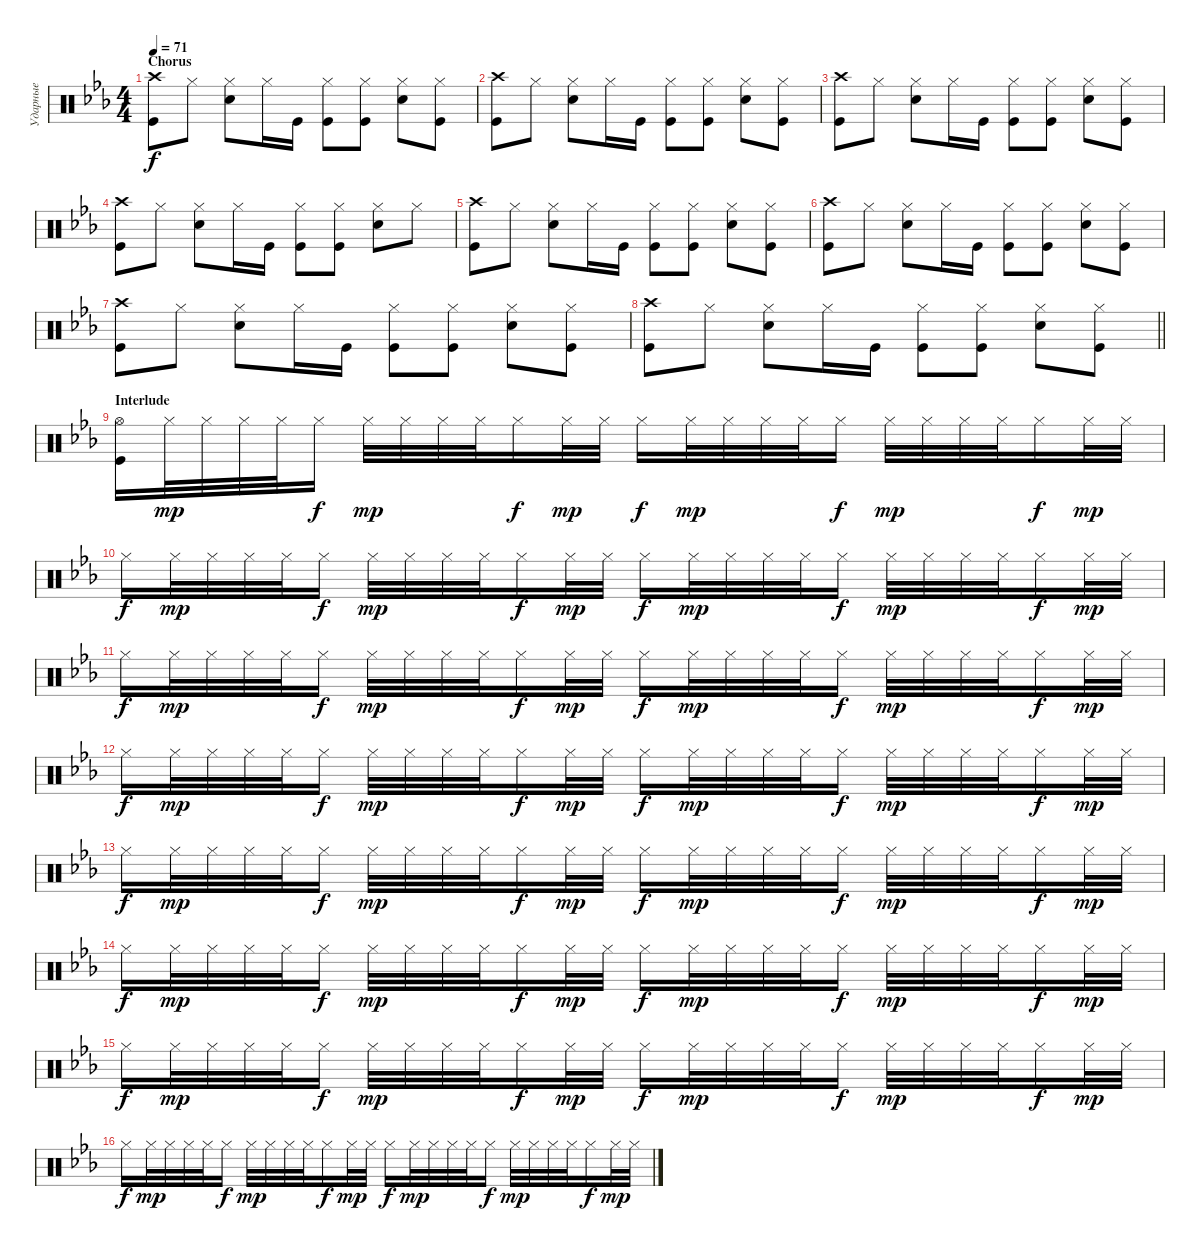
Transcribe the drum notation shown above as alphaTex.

\track ("Ударные" "Ударные") {instrument percussion}
\staff {score}
\articulation defaults
\ts (4 4)
\section ("" "Chorus")
\tempo 71
\clef neutral
\ks cminor
("Kick (hit)" "Crash high (hit)").8{dy f} "Hi-Hat (closed)".8 ("Snare (hit) 2" "Hi-Hat (closed)").8 "Hi-Hat (closed)".16 "Kick (hit)".16 ("Hi-Hat (closed)" "Kick (hit)").8 ("Hi-Hat (closed)" "Kick (hit)").8 ("Hi-Hat (closed)" "Snare (hit) 2").8 ("Hi-Hat (closed)" "Kick (hit)").8 |
("Kick (hit)" "Crash high (hit)").8 "Hi-Hat (closed)".8 ("Snare (hit) 2" "Hi-Hat (closed)").8 "Hi-Hat (closed)".16 "Kick (hit)".16 ("Hi-Hat (closed)" "Kick (hit)").8 ("Hi-Hat (closed)" "Kick (hit)").8 ("Hi-Hat (closed)" "Snare (hit) 2").8 ("Hi-Hat (closed)" "Kick (hit)").8 |
("Kick (hit)" "Crash high (hit)").8 "Hi-Hat (closed)".8 ("Snare (hit) 2" "Hi-Hat (closed)").8 "Hi-Hat (closed)".16 "Kick (hit)".16 ("Hi-Hat (closed)" "Kick (hit)").8 ("Hi-Hat (closed)" "Kick (hit)").8 ("Hi-Hat (closed)" "Snare (hit) 2").8 ("Hi-Hat (closed)" "Kick (hit)").8 |
("Kick (hit)" "Crash high (hit)").8 "Hi-Hat (closed)".8 ("Snare (hit) 2" "Hi-Hat (closed)").8 "Hi-Hat (closed)".16 "Kick (hit)".16 ("Hi-Hat (closed)" "Kick (hit)").8 ("Hi-Hat (closed)" "Kick (hit)").8 ("Hi-Hat (closed)" "Snare (hit) 2").8 "Hi-Hat (closed)".8 |
("Kick (hit)" "Crash high (hit)").8 "Hi-Hat (closed)".8 ("Snare (hit) 2" "Hi-Hat (closed)").8 "Hi-Hat (closed)".16 "Kick (hit)".16 ("Hi-Hat (closed)" "Kick (hit)").8 ("Hi-Hat (closed)" "Kick (hit)").8 ("Hi-Hat (closed)" "Snare (hit) 2").8 ("Hi-Hat (closed)" "Kick (hit)").8 |
("Kick (hit)" "Crash high (hit)").8 "Hi-Hat (closed)".8 ("Snare (hit) 2" "Hi-Hat (closed)").8 "Hi-Hat (closed)".16 "Kick (hit)".16 ("Hi-Hat (closed)" "Kick (hit)").8 ("Hi-Hat (closed)" "Kick (hit)").8 ("Hi-Hat (closed)" "Snare (hit) 2").8 ("Hi-Hat (closed)" "Kick (hit)").8 |
("Kick (hit)" "Crash high (hit)").8 "Hi-Hat (closed)".8 ("Snare (hit) 2" "Hi-Hat (closed)").8 "Hi-Hat (closed)".16 "Kick (hit)".16 ("Hi-Hat (closed)" "Kick (hit)").8 ("Hi-Hat (closed)" "Kick (hit)").8 ("Hi-Hat (closed)" "Snare (hit) 2").8 ("Hi-Hat (closed)" "Kick (hit)").8 |
\barLineRight lightlight
("Kick (hit)" "Crash high (hit)").8 "Hi-Hat (closed)".8 ("Snare (hit) 2" "Hi-Hat (closed)").8 "Hi-Hat (closed)".16 "Kick (hit)".16 ("Hi-Hat (closed)" "Kick (hit)").8 ("Hi-Hat (closed)" "Kick (hit)").8 ("Hi-Hat (closed)" "Snare (hit) 2").8 ("Hi-Hat (closed)" "Kick (hit)").8 |
\section ("" "Interlude")
("Hi-Hat (open)" "Kick (hit)").16 "Hi-Hat (closed)".32{dy mp volume 10} "Hi-Hat (closed)".32 "Hi-Hat (closed)".32 "Hi-Hat (closed)".32 "Hi-Hat (closed)".16{dy f} "Hi-Hat (closed)".32{dy mp} "Hi-Hat (closed)".32 "Hi-Hat (closed)".32 "Hi-Hat (closed)".32 "Hi-Hat (closed)".16{dy f} "Hi-Hat (closed)".32{dy mp} "Hi-Hat (closed)".32 "Hi-Hat (closed)".16{dy f} "Hi-Hat (closed)".32{dy mp} "Hi-Hat (closed)".32 "Hi-Hat (closed)".32 "Hi-Hat (closed)".32 "Hi-Hat (closed)".16{dy f} "Hi-Hat (closed)".32{dy mp} "Hi-Hat (closed)".32 "Hi-Hat (closed)".32 "Hi-Hat (closed)".32 "Hi-Hat (closed)".16{dy f} "Hi-Hat (closed)".32{dy mp} "Hi-Hat (closed)".32 |
"Hi-Hat (closed)".16{dy f} "Hi-Hat (closed)".32{dy mp} "Hi-Hat (closed)".32 "Hi-Hat (closed)".32 "Hi-Hat (closed)".32 "Hi-Hat (closed)".16{dy f} "Hi-Hat (closed)".32{dy mp} "Hi-Hat (closed)".32 "Hi-Hat (closed)".32 "Hi-Hat (closed)".32 "Hi-Hat (closed)".16{dy f} "Hi-Hat (closed)".32{dy mp} "Hi-Hat (closed)".32 "Hi-Hat (closed)".16{dy f} "Hi-Hat (closed)".32{dy mp} "Hi-Hat (closed)".32 "Hi-Hat (closed)".32 "Hi-Hat (closed)".32 "Hi-Hat (closed)".16{dy f} "Hi-Hat (closed)".32{dy mp} "Hi-Hat (closed)".32 "Hi-Hat (closed)".32 "Hi-Hat (closed)".32 "Hi-Hat (closed)".16{dy f} "Hi-Hat (closed)".32{dy mp} "Hi-Hat (closed)".32 |
"Hi-Hat (closed)".16{dy f} "Hi-Hat (closed)".32{dy mp} "Hi-Hat (closed)".32 "Hi-Hat (closed)".32 "Hi-Hat (closed)".32 "Hi-Hat (closed)".16{dy f} "Hi-Hat (closed)".32{dy mp} "Hi-Hat (closed)".32 "Hi-Hat (closed)".32 "Hi-Hat (closed)".32 "Hi-Hat (closed)".16{dy f} "Hi-Hat (closed)".32{dy mp} "Hi-Hat (closed)".32 "Hi-Hat (closed)".16{dy f} "Hi-Hat (closed)".32{dy mp} "Hi-Hat (closed)".32 "Hi-Hat (closed)".32 "Hi-Hat (closed)".32 "Hi-Hat (closed)".16{dy f} "Hi-Hat (closed)".32{dy mp} "Hi-Hat (closed)".32 "Hi-Hat (closed)".32 "Hi-Hat (closed)".32 "Hi-Hat (closed)".16{dy f} "Hi-Hat (closed)".32{dy mp} "Hi-Hat (closed)".32 |
"Hi-Hat (closed)".16{dy f} "Hi-Hat (closed)".32{dy mp} "Hi-Hat (closed)".32 "Hi-Hat (closed)".32 "Hi-Hat (closed)".32 "Hi-Hat (closed)".16{dy f} "Hi-Hat (closed)".32{dy mp} "Hi-Hat (closed)".32 "Hi-Hat (closed)".32 "Hi-Hat (closed)".32 "Hi-Hat (closed)".16{dy f} "Hi-Hat (closed)".32{dy mp} "Hi-Hat (closed)".32 "Hi-Hat (closed)".16{dy f} "Hi-Hat (closed)".32{dy mp} "Hi-Hat (closed)".32 "Hi-Hat (closed)".32 "Hi-Hat (closed)".32 "Hi-Hat (closed)".16{dy f} "Hi-Hat (closed)".32{dy mp} "Hi-Hat (closed)".32 "Hi-Hat (closed)".32 "Hi-Hat (closed)".32 "Hi-Hat (closed)".16{dy f} "Hi-Hat (closed)".32{dy mp} "Hi-Hat (closed)".32 |
"Hi-Hat (closed)".16{dy f} "Hi-Hat (closed)".32{dy mp} "Hi-Hat (closed)".32 "Hi-Hat (closed)".32 "Hi-Hat (closed)".32 "Hi-Hat (closed)".16{dy f} "Hi-Hat (closed)".32{dy mp} "Hi-Hat (closed)".32 "Hi-Hat (closed)".32 "Hi-Hat (closed)".32 "Hi-Hat (closed)".16{dy f} "Hi-Hat (closed)".32{dy mp} "Hi-Hat (closed)".32 "Hi-Hat (closed)".16{dy f} "Hi-Hat (closed)".32{dy mp} "Hi-Hat (closed)".32 "Hi-Hat (closed)".32 "Hi-Hat (closed)".32 "Hi-Hat (closed)".16{dy f} "Hi-Hat (closed)".32{dy mp} "Hi-Hat (closed)".32 "Hi-Hat (closed)".32 "Hi-Hat (closed)".32 "Hi-Hat (closed)".16{dy f} "Hi-Hat (closed)".32{dy mp} "Hi-Hat (closed)".32 |
"Hi-Hat (closed)".16{dy f} "Hi-Hat (closed)".32{dy mp} "Hi-Hat (closed)".32 "Hi-Hat (closed)".32 "Hi-Hat (closed)".32 "Hi-Hat (closed)".16{dy f} "Hi-Hat (closed)".32{dy mp} "Hi-Hat (closed)".32 "Hi-Hat (closed)".32 "Hi-Hat (closed)".32 "Hi-Hat (closed)".16{dy f} "Hi-Hat (closed)".32{dy mp} "Hi-Hat (closed)".32 "Hi-Hat (closed)".16{dy f} "Hi-Hat (closed)".32{dy mp} "Hi-Hat (closed)".32 "Hi-Hat (closed)".32 "Hi-Hat (closed)".32 "Hi-Hat (closed)".16{dy f} "Hi-Hat (closed)".32{dy mp} "Hi-Hat (closed)".32 "Hi-Hat (closed)".32 "Hi-Hat (closed)".32 "Hi-Hat (closed)".16{dy f} "Hi-Hat (closed)".32{dy mp} "Hi-Hat (closed)".32 |
"Hi-Hat (closed)".16{dy f} "Hi-Hat (closed)".32{dy mp} "Hi-Hat (closed)".32 "Hi-Hat (closed)".32 "Hi-Hat (closed)".32 "Hi-Hat (closed)".16{dy f} "Hi-Hat (closed)".32{dy mp} "Hi-Hat (closed)".32 "Hi-Hat (closed)".32 "Hi-Hat (closed)".32 "Hi-Hat (closed)".16{dy f} "Hi-Hat (closed)".32{dy mp} "Hi-Hat (closed)".32 "Hi-Hat (closed)".16{dy f} "Hi-Hat (closed)".32{dy mp} "Hi-Hat (closed)".32 "Hi-Hat (closed)".32 "Hi-Hat (closed)".32 "Hi-Hat (closed)".16{dy f} "Hi-Hat (closed)".32{dy mp} "Hi-Hat (closed)".32 "Hi-Hat (closed)".32 "Hi-Hat (closed)".32 "Hi-Hat (closed)".16{dy f} "Hi-Hat (closed)".32{dy mp} "Hi-Hat (closed)".32 |
"Hi-Hat (closed)".16{dy f} "Hi-Hat (closed)".32{dy mp} "Hi-Hat (closed)".32 "Hi-Hat (closed)".32 "Hi-Hat (closed)".32 "Hi-Hat (closed)".16{dy f} "Hi-Hat (closed)".32{dy mp} "Hi-Hat (closed)".32 "Hi-Hat (closed)".32 "Hi-Hat (closed)".32 "Hi-Hat (closed)".16{dy f} "Hi-Hat (closed)".32{dy mp} "Hi-Hat (closed)".32 "Hi-Hat (closed)".16{dy f} "Hi-Hat (closed)".32{dy mp} "Hi-Hat (closed)".32 "Hi-Hat (closed)".32 "Hi-Hat (closed)".32 "Hi-Hat (closed)".16{dy f} "Hi-Hat (closed)".32{dy mp} "Hi-Hat (closed)".32 "Hi-Hat (closed)".32 "Hi-Hat (closed)".32 "Hi-Hat (closed)".16{dy f} "Hi-Hat (closed)".32{dy mp} "Hi-Hat (closed)".32
